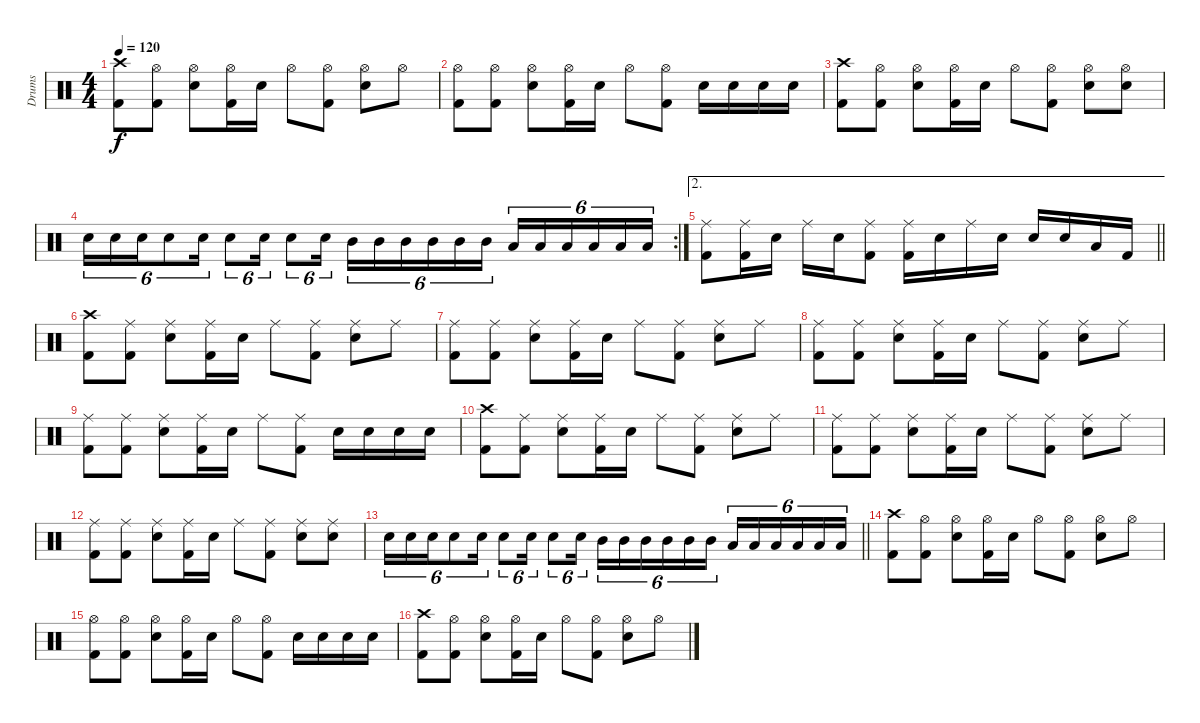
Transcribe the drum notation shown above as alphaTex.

\track ("Drums" "Drums") {instrument percussion}
\staff {score}
\articulation defaults
\ts (4 4)
\tempo 120
\clef neutral
\ks c
("Crash high (hit)" "Kick (hit) 2").8{dy f} ("Hi-Hat (open)" "Kick (hit) 2").8 ("Hi-Hat (open)" "Snare (hit) 2").8 ("Hi-Hat (open)" "Kick (hit) 2").16 "Snare (hit) 2".16 "Hi-Hat (open)".8 ("Hi-Hat (open)" "Kick (hit) 2").8 ("Hi-Hat (open)" "Snare (hit) 2").8 "Hi-Hat (open)".8 |
("Hi-Hat (open)" "Kick (hit) 2").8 ("Hi-Hat (open)" "Kick (hit) 2").8 ("Hi-Hat (open)" "Snare (hit) 2").8 ("Hi-Hat (open)" "Kick (hit) 2").16 "Snare (hit) 2".16 "Hi-Hat (open)".8 ("Hi-Hat (open)" "Kick (hit) 2").8 "Snare (hit) 2".16 "Snare (hit) 2".16 "Snare (hit) 2".16 "Snare (hit) 2".16 |
("Crash high (hit)" "Kick (hit) 2").8 ("Hi-Hat (open)" "Kick (hit) 2").8 ("Hi-Hat (open)" "Snare (hit) 2").8 ("Hi-Hat (open)" "Kick (hit) 2").16 "Snare (hit) 2".16 "Hi-Hat (open)".8 ("Hi-Hat (open)" "Kick (hit) 2").8 ("Hi-Hat (open)" "Snare (hit) 2").8 ("Hi-Hat (open)" "Snare (hit) 2").8 |
\rc 2 "Snare (hit) 2".16{tu (6 4)} "Snare (hit) 2".16{tu (6 4)} "Snare (hit) 2".16{tu (6 4)} "Snare (hit) 2".8{tu (6 4)} "Snare (hit) 2".16{tu (6 4)} "Snare (hit) 2".8{tu (6 4)} "Snare (hit) 2".16{tu (6 4)} "Snare (hit) 2".8{tu (6 4)} "Snare (hit) 2".16{tu (6 4)} "Mid Tom (hit)".16{tu (6 4)} "Mid Tom (hit)".16{tu (6 4)} "Mid Tom (hit)".16{tu (6 4)} "Mid Tom (hit)".16{tu (6 4)} "Mid Tom (hit)".16{tu (6 4)} "Mid Tom (hit)".16{tu (6 4)} "Low Floor Tom (hit)".16{tu (6 4)} "Low Floor Tom (hit)".16{tu (6 4)} "Low Floor Tom (hit)".16{tu (6 4)} "Low Floor Tom (hit)".16{tu (6 4)} "Low Floor Tom (hit)".16{tu (6 4)} "Low Floor Tom (hit)".16{tu (6 4)}
|
\ae 2
\barLineRight lightlight
("Ride (middle)" "Kick (hit) 2").8 ("Ride (middle)" "Kick (hit) 2").16 "Snare (hit) 2".16 "Ride (middle)".16 "Snare (hit) 2".16 ("Ride (middle)" "Kick (hit) 2").8 ("Ride (middle)" "Kick (hit) 2").16 "Snare (hit) 2".16 "Ride (middle)".16 "Snare (hit) 2".16 "Snare (hit) 2".16 "Snare (hit) 2".16 "Low Floor Tom (hit)".16 "Kick (hit) 2".16 |
("Crash high (hit)" "Kick (hit) 2").8 ("Ride (middle)" "Kick (hit) 2").8 ("Ride (middle)" "Snare (hit) 2").8 ("Ride (middle)" "Kick (hit) 2").16 "Snare (hit) 2".16 "Ride (middle)".8 ("Ride (middle)" "Kick (hit) 2").8 ("Ride (middle)" "Snare (hit) 2").8 "Ride (middle)".8 |
("Ride (middle)" "Kick (hit) 2").8 ("Ride (middle)" "Kick (hit) 2").8 ("Ride (middle)" "Snare (hit) 2").8 ("Ride (middle)" "Kick (hit) 2").16 "Snare (hit) 2".16 "Ride (middle)".8 ("Ride (middle)" "Kick (hit) 2").8 ("Ride (middle)" "Snare (hit) 2").8 "Ride (middle)".8 |
("Ride (middle)" "Kick (hit) 2").8 ("Ride (middle)" "Kick (hit) 2").8 ("Ride (middle)" "Snare (hit) 2").8 ("Ride (middle)" "Kick (hit) 2").16 "Snare (hit) 2".16 "Ride (middle)".8 ("Ride (middle)" "Kick (hit) 2").8 ("Ride (middle)" "Snare (hit) 2").8 "Ride (middle)".8 |
("Ride (middle)" "Kick (hit) 2").8 ("Ride (middle)" "Kick (hit) 2").8 ("Ride (middle)" "Snare (hit) 2").8 ("Ride (middle)" "Kick (hit) 2").16 "Snare (hit) 2".16 "Ride (middle)".8 ("Ride (middle)" "Kick (hit) 2").8 "Snare (hit) 2".16 "Snare (hit) 2".16 "Snare (hit) 2".16 "Snare (hit) 2".16 |
("Crash high (hit)" "Kick (hit) 2").8 ("Ride (middle)" "Kick (hit) 2").8 ("Ride (middle)" "Snare (hit) 2").8 ("Ride (middle)" "Kick (hit) 2").16 "Snare (hit) 2".16 "Ride (middle)".8 ("Ride (middle)" "Kick (hit) 2").8 ("Ride (middle)" "Snare (hit) 2").8 "Ride (middle)".8 |
("Ride (middle)" "Kick (hit) 2").8 ("Ride (middle)" "Kick (hit) 2").8 ("Ride (middle)" "Snare (hit) 2").8 ("Ride (middle)" "Kick (hit) 2").16 "Snare (hit) 2".16 "Ride (middle)".8 ("Ride (middle)" "Kick (hit) 2").8 ("Ride (middle)" "Snare (hit) 2").8 "Ride (middle)".8 |
("Ride (middle)" "Kick (hit) 2").8 ("Ride (middle)" "Kick (hit) 2").8 ("Ride (middle)" "Snare (hit) 2").8 ("Ride (middle)" "Kick (hit) 2").16 "Snare (hit) 2".16 "Ride (middle)".8 ("Ride (middle)" "Kick (hit) 2").8 ("Ride (middle)" "Snare (hit) 2").8 ("Ride (middle)" "Snare (hit) 2").8 |
\barLineRight lightlight "Snare (hit) 2".16{tu (6 4)} "Snare (hit) 2".16{tu (6 4)} "Snare (hit) 2".16{tu (6 4)} "Snare (hit) 2".8{tu (6 4)} "Snare (hit) 2".16{tu (6 4)} "Snare (hit) 2".8{tu (6 4)} "Snare (hit) 2".16{tu (6 4)} "Snare (hit) 2".8{tu (6 4)} "Snare (hit) 2".16{tu (6 4)} "Mid Tom (hit)".16{tu (6 4)} "Mid Tom (hit)".16{tu (6 4)} "Mid Tom (hit)".16{tu (6 4)} "Mid Tom (hit)".16{tu (6 4)} "Mid Tom (hit)".16{tu (6 4)} "Mid Tom (hit)".16{tu (6 4)} "Low Floor Tom (hit)".16{tu (6 4)} "Low Floor Tom (hit)".16{tu (6 4)} "Low Floor Tom (hit)".16{tu (6 4)} "Low Floor Tom (hit)".16{tu (6 4)} "Low Floor Tom (hit)".16{tu (6 4)} "Low Floor Tom (hit)".16{tu (6 4)}
|
("Crash high (hit)" "Kick (hit) 2").8 ("Hi-Hat (open)" "Kick (hit) 2").8 ("Hi-Hat (open)" "Snare (hit) 2").8 ("Hi-Hat (open)" "Kick (hit) 2").16 "Snare (hit) 2".16 "Hi-Hat (open)".8 ("Hi-Hat (open)" "Kick (hit) 2").8 ("Hi-Hat (open)" "Snare (hit) 2").8 "Hi-Hat (open)".8 |
("Hi-Hat (open)" "Kick (hit) 2").8 ("Hi-Hat (open)" "Kick (hit) 2").8 ("Hi-Hat (open)" "Snare (hit) 2").8 ("Hi-Hat (open)" "Kick (hit) 2").16 "Snare (hit) 2".16 "Hi-Hat (open)".8 ("Hi-Hat (open)" "Kick (hit) 2").8 "Snare (hit) 2".16 "Snare (hit) 2".16 "Snare (hit) 2".16 "Snare (hit) 2".16 |
("Crash high (hit)" "Kick (hit) 2").8 ("Hi-Hat (open)" "Kick (hit) 2").8 ("Hi-Hat (open)" "Snare (hit) 2").8 ("Hi-Hat (open)" "Kick (hit) 2").16 "Snare (hit) 2".16 "Hi-Hat (open)".8 ("Hi-Hat (open)" "Kick (hit) 2").8 ("Hi-Hat (open)" "Snare (hit) 2").8 "Hi-Hat (open)".8
